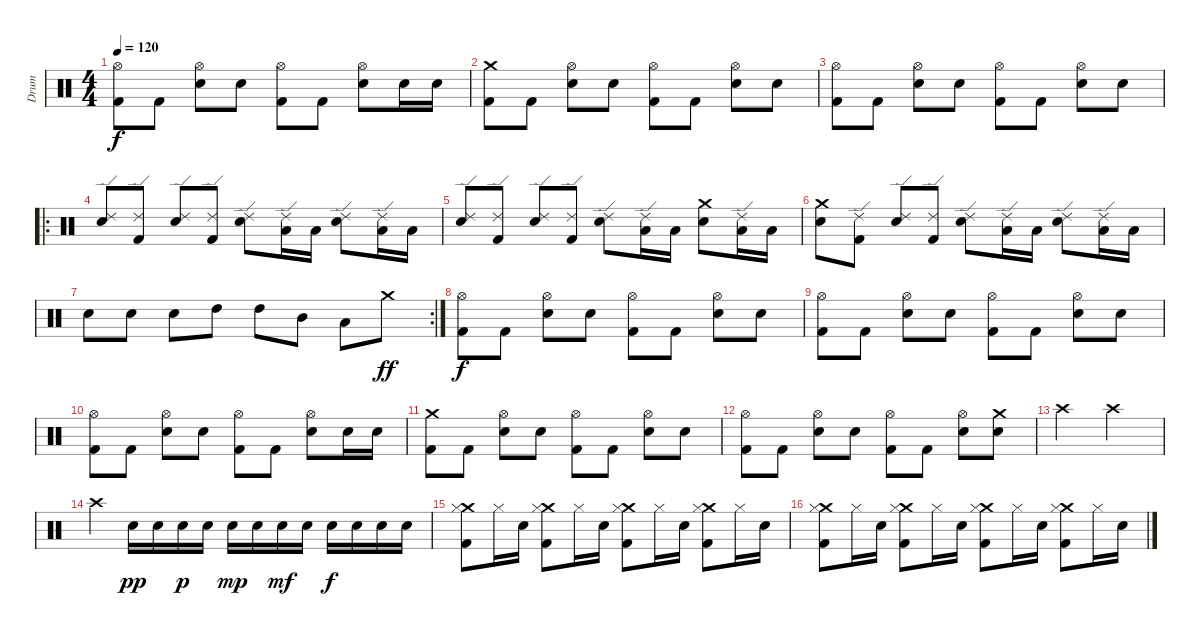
\track ("Drum" "Drum") {instrument percussion}
\staff {score}
\articulation defaults
\ts (4 4)
\tempo 120
\clef neutral
\ks c
("Hi-Hat (open)" "Kick (hit) 2").8{dy f} "Kick (hit) 2".8 ("Hi-Hat (open)" "Electric Snare (hit)").8 "Electric Snare (hit)".8 ("Hi-Hat (open)" "Kick (hit) 2").8 "Kick (hit) 2".8 ("Hi-Hat (open)" "Electric Snare (hit)").8 "Electric Snare (hit)".16 "Electric Snare (hit)".16 |
("Crash medium (hit)" "Kick (hit) 2").8 "Kick (hit) 2".8 ("Hi-Hat (open)" "Electric Snare (hit)").8 "Electric Snare (hit)".8 ("Hi-Hat (open)" "Kick (hit) 2").8 "Kick (hit) 2".8 ("Hi-Hat (open)" "Electric Snare (hit)").8 "Electric Snare (hit)".8 |
("Hi-Hat (open)" "Kick (hit) 2").8 "Kick (hit) 2".8 ("Hi-Hat (open)" "Electric Snare (hit)").8 "Electric Snare (hit)".8 ("Hi-Hat (open)" "Kick (hit) 2").8 "Kick (hit) 2".8 ("Hi-Hat (open)" "Electric Snare (hit)").8 "Electric Snare (hit)".8 |
\ro
("Ride (edge) 2" "Electric Snare (hit)").8 ("Ride (edge) 2" "Kick (hit) 2").8 ("Ride (edge) 2" "Electric Snare (hit)").8 ("Ride (edge) 2" "Kick (hit) 2").8 ("Ride (edge) 2" "Electric Snare (hit)").8 ("Ride (edge) 2" "Low Tom (hit)").16 "Low Tom (hit)".16 ("Ride (edge) 2" "Electric Snare (hit)").8 ("Ride (edge) 2" "Low Tom (hit)").16 "Low Tom (hit)".16 |
("Ride (edge) 2" "Electric Snare (hit)").8 ("Ride (edge) 2" "Kick (hit) 2").8 ("Ride (edge) 2" "Electric Snare (hit)").8 ("Ride (edge) 2" "Kick (hit) 2").8 ("Ride (edge) 2" "Electric Snare (hit)").8 ("Ride (edge) 2" "Low Tom (hit)").16 "Low Tom (hit)".16 ("Crash medium (hit)" "Electric Snare (hit)").8 ("Ride (edge) 2" "Low Tom (hit)").16 "Low Tom (hit)".16 |
("Crash medium (hit)" "Electric Snare (hit)").8 ("Ride (edge) 2" "Kick (hit) 2").8 ("Ride (edge) 2" "Electric Snare (hit)").8 ("Ride (edge) 2" "Kick (hit) 2").8 ("Ride (edge) 2" "Electric Snare (hit)").8 ("Ride (edge) 2" "Low Tom (hit)").16 "Low Tom (hit)".16 ("Ride (edge) 2" "Electric Snare (hit)").8 ("Ride (edge) 2" "Low Tom (hit)").16 "Low Tom (hit)".16 |
\rc 2 "Electric Snare (hit)".8 "Electric Snare (hit)".8 "Electric Snare (hit)".8 "High Tom (hit)".8 "High Tom (hit)".8 "Mid Tom (hit)".8 "Low Tom (hit)".8 "Crash medium (hit)".8{dy ff}
|
("Hi-Hat (open)" "Kick (hit) 2").8{dy f} "Kick (hit) 2".8 ("Hi-Hat (open)" "Electric Snare (hit)").8 "Electric Snare (hit)".8 ("Hi-Hat (open)" "Kick (hit) 2").8 "Kick (hit) 2".8 ("Hi-Hat (open)" "Electric Snare (hit)").8 "Electric Snare (hit)".8 |
("Hi-Hat (open)" "Kick (hit) 2").8 "Kick (hit) 2".8 ("Hi-Hat (open)" "Electric Snare (hit)").8 "Electric Snare (hit)".8 ("Hi-Hat (open)" "Kick (hit) 2").8 "Kick (hit) 2".8 ("Hi-Hat (open)" "Electric Snare (hit)").8 "Electric Snare (hit)".8 |
("Hi-Hat (open)" "Kick (hit) 2").8 "Kick (hit) 2".8 ("Hi-Hat (open)" "Electric Snare (hit)").8 "Electric Snare (hit)".8 ("Hi-Hat (open)" "Kick (hit) 2").8 "Kick (hit) 2".8 ("Hi-Hat (open)" "Electric Snare (hit)").8 "Electric Snare (hit)".16 "Electric Snare (hit)".16 |
("Crash medium (hit)" "Kick (hit) 2").8 "Kick (hit) 2".8 ("Hi-Hat (open)" "Electric Snare (hit)").8 "Electric Snare (hit)".8 ("Hi-Hat (open)" "Kick (hit) 2").8 "Kick (hit) 2".8 ("Hi-Hat (open)" "Electric Snare (hit)").8 "Electric Snare (hit)".8 |
("Hi-Hat (open)" "Kick (hit) 2").8 "Kick (hit) 2".8 ("Hi-Hat (open)" "Electric Snare (hit)").8 "Electric Snare (hit)".8 ("Hi-Hat (open)" "Kick (hit) 2").8 "Kick (hit) 2".8 ("Hi-Hat (open)" "Electric Snare (hit)").8 ("Crash medium (hit)" "Electric Snare (hit)").8 |
"Crash high (hit)".2 "Crash high (hit)".2 |
"Crash high (hit)".4 "Electric Snare (hit)".16{dy pp} "Electric Snare (hit)".16 "Electric Snare (hit)".16{dy p} "Electric Snare (hit)".16 "Electric Snare (hit)".16{dy mp} "Electric Snare (hit)".16 "Electric Snare (hit)".16{dy mf} "Electric Snare (hit)".16 "Electric Snare (hit)".16{dy f} "Electric Snare (hit)".16 "Electric Snare (hit)".16 "Electric Snare (hit)".16 |
("Crash medium (hit)" "Kick (hit) 2" "Hi-Hat (closed)").8 "Hi-Hat (closed)".16 "Electric Snare (hit)".16 ("Crash medium (hit)" "Kick (hit) 2" "Hi-Hat (closed)").8 "Hi-Hat (closed)".16 "Electric Snare (hit)".16 ("Crash medium (hit)" "Kick (hit) 2" "Hi-Hat (closed)").8 "Hi-Hat (closed)".16 "Electric Snare (hit)".16 ("Crash medium (hit)" "Kick (hit) 2" "Hi-Hat (closed)").8 "Hi-Hat (closed)".16 "Electric Snare (hit)".16 |
("Crash medium (hit)" "Kick (hit) 2" "Hi-Hat (closed)").8 "Hi-Hat (closed)".16 "Electric Snare (hit)".16 ("Crash medium (hit)" "Kick (hit) 2" "Hi-Hat (closed)").8 "Hi-Hat (closed)".16 "Electric Snare (hit)".16 ("Crash medium (hit)" "Kick (hit) 2" "Hi-Hat (closed)").8 "Hi-Hat (closed)".16 "Electric Snare (hit)".16 ("Crash medium (hit)" "Kick (hit) 2" "Hi-Hat (closed)").8 "Hi-Hat (closed)".16 "Electric Snare (hit)".16
